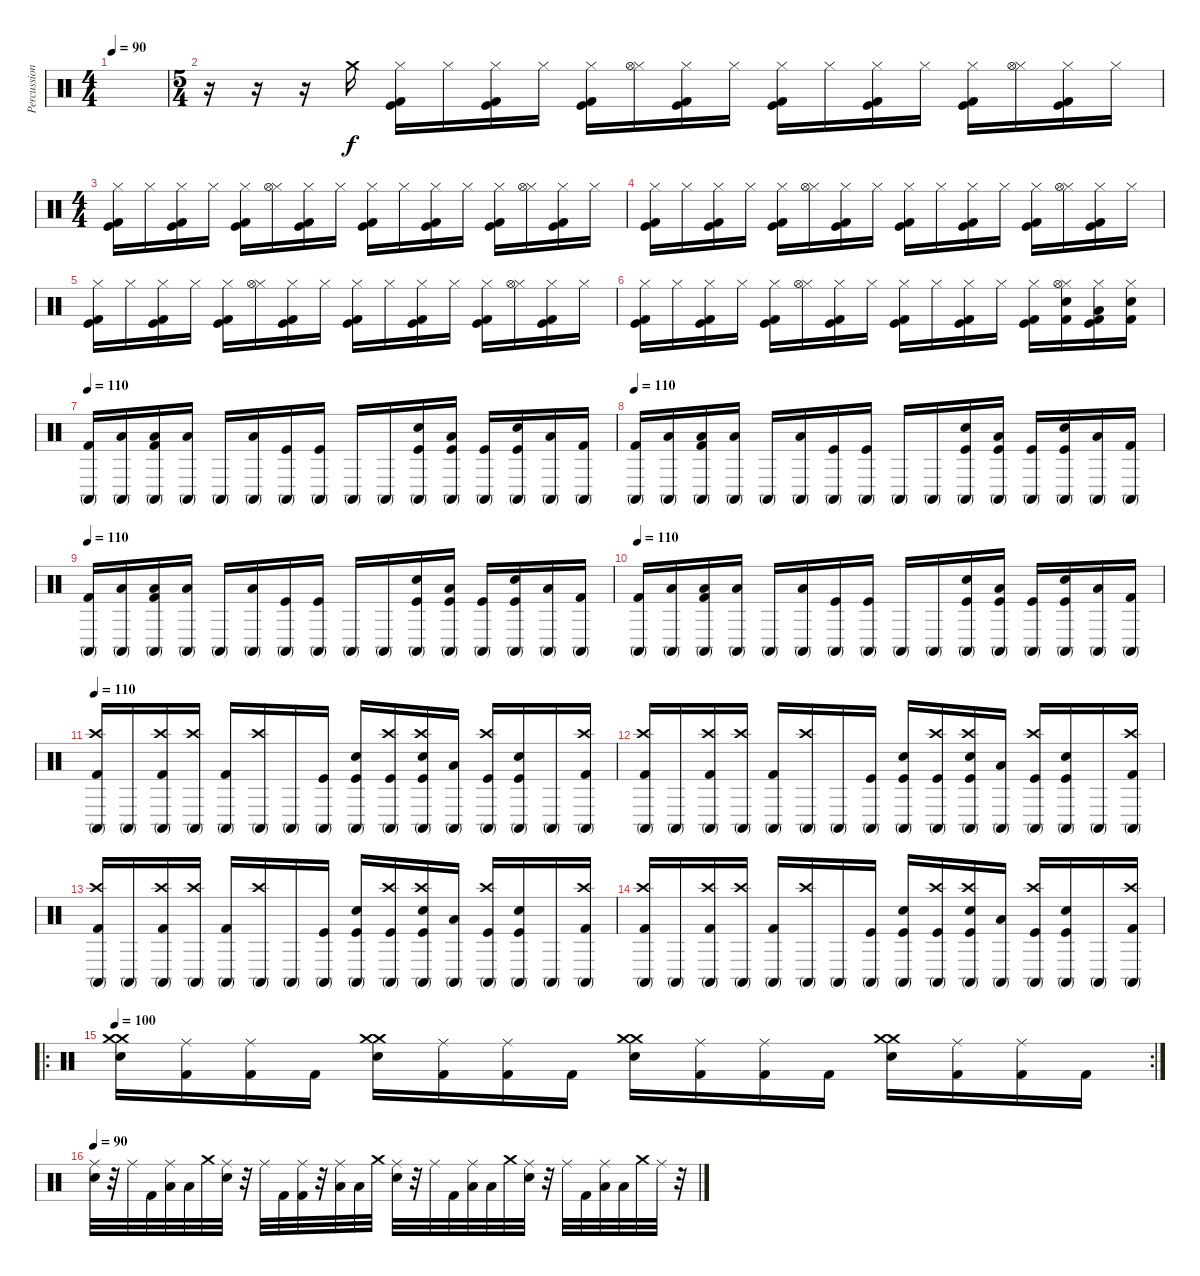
\track ("Percussion" "Percussion") {instrument percussion}
\staff {score}
\articulation defaults
\ts (4 4)
\tempo 90
\clef neutral
\ks c
|
\ts (5 4)
r.16 r.16 r.16 "Crash medium (hit)".16 ("Hi-Hat (closed)" "Kick (hit) 2" "Kick (hit)").16 "Hi-Hat (closed)".16 ("Hi-Hat (closed)" "Kick (hit) 2" "Kick (hit)").16 "Hi-Hat (closed)".16 ("Hi-Hat (closed)" "Kick (hit) 2" "Kick (hit)").16 ("Hi-Hat (closed)" "Hi-Hat (open)").16 ("Hi-Hat (closed)" "Kick (hit) 2" "Kick (hit)").16 "Hi-Hat (closed)".16 ("Hi-Hat (closed)" "Kick (hit) 2" "Kick (hit)").16 "Hi-Hat (closed)".16 ("Hi-Hat (closed)" "Kick (hit) 2" "Kick (hit)").16 "Hi-Hat (closed)".16 ("Hi-Hat (closed)" "Kick (hit) 2" "Kick (hit)").16 ("Hi-Hat (closed)" "Hi-Hat (open)").16 ("Hi-Hat (closed)" "Kick (hit) 2" "Kick (hit)").16 "Hi-Hat (closed)".16 |
\ts (4 4)
("Hi-Hat (closed)" "Kick (hit) 2" "Kick (hit)").16 "Hi-Hat (closed)".16 ("Hi-Hat (closed)" "Kick (hit) 2" "Kick (hit)").16 "Hi-Hat (closed)".16 ("Hi-Hat (closed)" "Kick (hit) 2" "Kick (hit)").16 ("Hi-Hat (closed)" "Hi-Hat (open)").16 ("Hi-Hat (closed)" "Kick (hit) 2" "Kick (hit)").16 "Hi-Hat (closed)".16 ("Hi-Hat (closed)" "Kick (hit) 2" "Kick (hit)").16 "Hi-Hat (closed)".16 ("Hi-Hat (closed)" "Kick (hit) 2" "Kick (hit)").16 "Hi-Hat (closed)".16 ("Hi-Hat (closed)" "Kick (hit) 2" "Kick (hit)").16 ("Hi-Hat (closed)" "Hi-Hat (open)").16 ("Hi-Hat (closed)" "Kick (hit) 2" "Kick (hit)").16 "Hi-Hat (closed)".16 |
("Hi-Hat (closed)" "Kick (hit) 2" "Kick (hit)").16 "Hi-Hat (closed)".16 ("Hi-Hat (closed)" "Kick (hit) 2" "Kick (hit)").16 "Hi-Hat (closed)".16 ("Hi-Hat (closed)" "Kick (hit) 2" "Kick (hit)").16 ("Hi-Hat (closed)" "Hi-Hat (open)").16 ("Hi-Hat (closed)" "Kick (hit) 2" "Kick (hit)").16 "Hi-Hat (closed)".16 ("Hi-Hat (closed)" "Kick (hit) 2" "Kick (hit)").16 "Hi-Hat (closed)".16 ("Hi-Hat (closed)" "Kick (hit) 2" "Kick (hit)").16 "Hi-Hat (closed)".16 ("Hi-Hat (closed)" "Kick (hit) 2" "Kick (hit)").16 ("Hi-Hat (closed)" "Hi-Hat (open)").16 ("Hi-Hat (closed)" "Kick (hit) 2" "Kick (hit)").16 "Hi-Hat (closed)".16 |
("Hi-Hat (closed)" "Kick (hit) 2" "Kick (hit)").16 "Hi-Hat (closed)".16 ("Hi-Hat (closed)" "Kick (hit) 2" "Kick (hit)").16 "Hi-Hat (closed)".16 ("Hi-Hat (closed)" "Kick (hit) 2" "Kick (hit)").16 ("Hi-Hat (closed)" "Hi-Hat (open)").16 ("Hi-Hat (closed)" "Kick (hit) 2" "Kick (hit)").16 "Hi-Hat (closed)".16 ("Hi-Hat (closed)" "Kick (hit) 2" "Kick (hit)").16 "Hi-Hat (closed)".16 ("Hi-Hat (closed)" "Kick (hit) 2" "Kick (hit)").16 "Hi-Hat (closed)".16 ("Hi-Hat (closed)" "Kick (hit) 2" "Kick (hit)").16 ("Hi-Hat (closed)" "Hi-Hat (open)").16 ("Hi-Hat (closed)" "Kick (hit) 2" "Kick (hit)").16 "Hi-Hat (closed)".16 |
("Hi-Hat (closed)" "Kick (hit) 2" "Kick (hit)").16 "Hi-Hat (closed)".16 ("Hi-Hat (closed)" "Kick (hit) 2" "Kick (hit)").16 "Hi-Hat (closed)".16 ("Hi-Hat (closed)" "Kick (hit) 2" "Kick (hit)").16 ("Hi-Hat (closed)" "Hi-Hat (open)").16 ("Hi-Hat (closed)" "Kick (hit) 2" "Kick (hit)").16 "Hi-Hat (closed)".16 ("Hi-Hat (closed)" "Kick (hit) 2" "Kick (hit)").16 "Hi-Hat (closed)".16 ("Hi-Hat (closed)" "Kick (hit) 2" "Kick (hit)").16 "Hi-Hat (closed)".16 ("Hi-Hat (closed)" "Kick (hit) 2" "Kick (hit)").16 ("Hi-Hat (closed)" "Hi-Hat (open)" "Snare (hit) 2" "Kick (hit) 2").16 ("Hi-Hat (closed)" "Low Tom (hit)" "Kick (hit) 2" "Kick (hit)").16 ("Hi-Hat (closed)" "Snare (hit) 2" "Kick (hit) 2").16 |
\tempo 110
("Conga high (mute)" "Kick (hit) 2").16 ("Conga high (mute)" "Low Tom (hit)").16 ("Conga high (mute)" "Low Tom (hit)" "Kick (hit) 2").16 ("Conga high (mute)" "Low Tom (hit)").16 "Conga high (mute)".16 ("Conga high (mute)" "Low Tom (hit)").16 ("Conga high (mute)" "Kick (hit)").16 ("Conga high (mute)" "Kick (hit)").16 "Conga high (mute)".16 "Conga high (mute)".16 ("Conga high (mute)" "Snare (hit) 2" "Kick (hit)").16 ("Conga high (mute)" "Low Tom (hit)" "Kick (hit)").16 ("Conga high (mute)" "Kick (hit)").16 ("Conga high (mute)" "Snare (hit) 2" "Kick (hit)").16 ("Conga high (mute)" "Low Tom (hit)").16 ("Conga high (mute)" "Kick (hit) 2").16 |
\tempo 110
("Conga high (mute)" "Kick (hit) 2").16 ("Conga high (mute)" "Low Tom (hit)").16 ("Conga high (mute)" "Low Tom (hit)" "Kick (hit) 2").16 ("Conga high (mute)" "Low Tom (hit)").16 "Conga high (mute)".16 ("Conga high (mute)" "Low Tom (hit)").16 ("Conga high (mute)" "Kick (hit)").16 ("Conga high (mute)" "Kick (hit)").16 "Conga high (mute)".16 "Conga high (mute)".16 ("Conga high (mute)" "Snare (hit) 2" "Kick (hit)").16 ("Conga high (mute)" "Low Tom (hit)" "Kick (hit)").16 ("Conga high (mute)" "Kick (hit)").16 ("Conga high (mute)" "Snare (hit) 2" "Kick (hit)").16 ("Conga high (mute)" "Low Tom (hit)").16 ("Conga high (mute)" "Kick (hit) 2").16 |
\tempo 110
("Conga high (mute)" "Kick (hit) 2").16 ("Conga high (mute)" "Low Tom (hit)").16 ("Conga high (mute)" "Low Tom (hit)" "Kick (hit) 2").16 ("Conga high (mute)" "Low Tom (hit)").16 "Conga high (mute)".16 ("Conga high (mute)" "Low Tom (hit)").16 ("Conga high (mute)" "Kick (hit)").16 ("Conga high (mute)" "Kick (hit)").16 "Conga high (mute)".16 "Conga high (mute)".16 ("Conga high (mute)" "Snare (hit) 2" "Kick (hit)").16 ("Conga high (mute)" "Low Tom (hit)" "Kick (hit)").16 ("Conga high (mute)" "Kick (hit)").16 ("Conga high (mute)" "Snare (hit) 2" "Kick (hit)").16 ("Conga high (mute)" "Low Tom (hit)").16 ("Conga high (mute)" "Kick (hit) 2").16 |
\tempo 110
("Conga high (mute)" "Kick (hit) 2").16 ("Conga high (mute)" "Low Tom (hit)").16 ("Conga high (mute)" "Low Tom (hit)" "Kick (hit) 2").16 ("Conga high (mute)" "Low Tom (hit)").16 "Conga high (mute)".16 ("Conga high (mute)" "Low Tom (hit)").16 ("Conga high (mute)" "Kick (hit)").16 ("Conga high (mute)" "Kick (hit)").16 "Conga high (mute)".16 "Conga high (mute)".16 ("Conga high (mute)" "Snare (hit) 2" "Kick (hit)").16 ("Conga high (mute)" "Low Tom (hit)" "Kick (hit)").16 ("Conga high (mute)" "Kick (hit)").16 ("Conga high (mute)" "Snare (hit) 2" "Kick (hit)").16 ("Conga high (mute)" "Low Tom (hit)").16 ("Conga high (mute)" "Kick (hit) 2").16 |
\tempo 110
("Conga high (mute)" "Crash high (hit)" "Kick (hit) 2").16 "Conga high (mute)".16 ("Conga high (mute)" "Crash high (hit)" "Kick (hit) 2").16 ("Conga high (mute)" "Crash high (hit)").16 ("Conga high (mute)" "Kick (hit) 2").16 ("Conga high (mute)" "Crash high (hit)").16 "Conga high (mute)".16 ("Conga high (mute)" "Kick (hit)").16 ("Conga high (mute)" "Snare (hit) 2" "Kick (hit)").16 ("Conga high (mute)" "Crash high (hit)" "Kick (hit)").16 ("Conga high (mute)" "Crash high (hit)" "Snare (hit) 2" "Kick (hit)").16 ("Conga high (mute)" "Low Tom (hit)").16 ("Conga high (mute)" "Crash high (hit)" "Kick (hit)").16 ("Conga high (mute)" "Snare (hit) 2" "Kick (hit)").16 "Conga high (mute)".16 ("Conga high (mute)" "Crash high (hit)" "Kick (hit) 2").16 |
("Conga high (mute)" "Crash high (hit)" "Kick (hit) 2").16 "Conga high (mute)".16 ("Conga high (mute)" "Crash high (hit)" "Kick (hit) 2").16 ("Conga high (mute)" "Crash high (hit)").16 ("Conga high (mute)" "Kick (hit) 2").16 ("Conga high (mute)" "Crash high (hit)").16 "Conga high (mute)".16 ("Conga high (mute)" "Kick (hit)").16 ("Conga high (mute)" "Snare (hit) 2" "Kick (hit)").16 ("Conga high (mute)" "Crash high (hit)" "Kick (hit)").16 ("Conga high (mute)" "Crash high (hit)" "Snare (hit) 2" "Kick (hit)").16 ("Conga high (mute)" "Low Tom (hit)").16 ("Conga high (mute)" "Crash high (hit)" "Kick (hit)").16 ("Conga high (mute)" "Snare (hit) 2" "Kick (hit)").16 "Conga high (mute)".16 ("Conga high (mute)" "Crash high (hit)" "Kick (hit) 2").16 |
("Conga high (mute)" "Crash high (hit)" "Kick (hit) 2").16 "Conga high (mute)".16 ("Conga high (mute)" "Crash high (hit)" "Kick (hit) 2").16 ("Conga high (mute)" "Crash high (hit)").16 ("Conga high (mute)" "Kick (hit) 2").16 ("Conga high (mute)" "Crash high (hit)").16 "Conga high (mute)".16 ("Conga high (mute)" "Kick (hit)").16 ("Conga high (mute)" "Snare (hit) 2" "Kick (hit)").16 ("Conga high (mute)" "Crash high (hit)" "Kick (hit)").16 ("Conga high (mute)" "Crash high (hit)" "Snare (hit) 2" "Kick (hit)").16 ("Conga high (mute)" "Low Tom (hit)").16 ("Conga high (mute)" "Crash high (hit)" "Kick (hit)").16 ("Conga high (mute)" "Snare (hit) 2" "Kick (hit)").16 "Conga high (mute)".16 ("Conga high (mute)" "Crash high (hit)" "Kick (hit) 2").16 |
("Conga high (mute)" "Crash high (hit)" "Kick (hit) 2").16 "Conga high (mute)".16 ("Conga high (mute)" "Crash high (hit)" "Kick (hit) 2").16 ("Conga high (mute)" "Crash high (hit)").16 ("Conga high (mute)" "Kick (hit) 2").16 ("Conga high (mute)" "Crash high (hit)").16 "Conga high (mute)".16 ("Conga high (mute)" "Kick (hit)").16 ("Conga high (mute)" "Snare (hit) 2" "Kick (hit)").16 ("Conga high (mute)" "Crash high (hit)" "Kick (hit)").16 ("Conga high (mute)" "Crash high (hit)" "Snare (hit) 2" "Kick (hit)").16 ("Conga high (mute)" "Low Tom (hit)").16 ("Conga high (mute)" "Crash high (hit)" "Kick (hit)").16 ("Conga high (mute)" "Snare (hit) 2" "Kick (hit)").16 "Conga high (mute)".16 ("Conga high (mute)" "Crash high (hit)" "Kick (hit) 2").16 |
\ro
\rc 2
\tempo 100
("Crash medium (hit)" "Crash medium (hit)" "Electric Snare (hit)").16 ("Ride (middle)" "Kick (hit) 2").16 ("Ride (middle)" "Kick (hit) 2").16 "Kick (hit) 2".16 ("Crash medium (hit)" "Crash medium (hit)" "Electric Snare (hit)").16 ("Ride (middle)" "Kick (hit) 2").16 ("Ride (middle)" "Kick (hit) 2").16 "Kick (hit) 2".16 ("Crash medium (hit)" "Crash medium (hit)" "Electric Snare (hit)").16 ("Ride (middle)" "Kick (hit) 2").16 ("Ride (middle)" "Kick (hit) 2").16 "Kick (hit) 2".16 ("Crash medium (hit)" "Crash medium (hit)" "Electric Snare (hit)").16 ("Ride (middle)" "Kick (hit) 2").16 ("Ride (middle)" "Kick (hit) 2").16 "Kick (hit) 2".16 |
\tempo 90
("Ride (middle)" "Electric Snare (hit)").32 r.32 "Ride (middle)".32 "Kick (hit) 2".32 ("Ride (middle)" "Low Tom (hit)").32 "Low Tom (hit)".32 "Crash medium (hit)".32 ("Ride (middle)" "Electric Snare (hit)").32 r.32 "Ride (middle)".32 "Kick (hit) 2".32 ("Ride (middle)" "Kick (hit) 2").32 r.32 ("Ride (middle)" "Low Tom (hit)").32 "Low Tom (hit)".32 "Crash medium (hit)".32 ("Ride (middle)" "Electric Snare (hit)").32 r.32 "Ride (middle)".32 "Kick (hit) 2".32 ("Ride (middle)" "Low Tom (hit)").32 "Low Tom (hit)".32 "Crash medium (hit)".32 ("Ride (middle)" "Electric Snare (hit)").32 r.32 "Ride (middle)".32 "Kick (hit) 2".32 ("Ride (middle)" "Low Tom (hit)").32 "Low Tom (hit)".32 "Crash medium (hit)".32 "Ride (middle)".32 r.32
